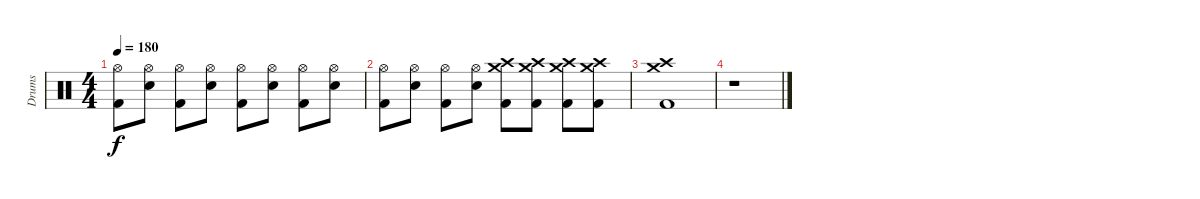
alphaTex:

\track ("Drums" "Drums") {instrument percussion}
\staff {score}
\articulation defaults
\ts (4 4)
\tempo 180
\clef neutral
\ks c
("Hi-Hat (open)" "Kick (hit) 2").8{dy f} ("Hi-Hat (open)" "Snare (hit) 2").8 ("Hi-Hat (open)" "Kick (hit) 2").8 ("Hi-Hat (open)" "Snare (hit) 2").8 ("Hi-Hat (open)" "Kick (hit) 2").8 ("Hi-Hat (open)" "Snare (hit) 2").8 ("Hi-Hat (open)" "Kick (hit) 2").8 ("Hi-Hat (open)" "Snare (hit) 2").8 |
("Hi-Hat (open)" "Kick (hit) 2").8 ("Hi-Hat (open)" "Snare (hit) 2").8 ("Hi-Hat (open)" "Kick (hit) 2").8 ("Hi-Hat (open)" "Snare (hit) 2").8 ("Crash high (hit)" "Crash medium (hit)" "Kick (hit) 2").8 ("Crash high (hit)" "Crash medium (hit)" "Kick (hit) 2").8 ("Crash high (hit)" "Crash medium (hit)" "Kick (hit) 2").8 ("Crash high (hit)" "Crash medium (hit)" "Kick (hit) 2").8 |
("Crash high (hit)" "Crash medium (hit)" "Kick (hit) 2").1 |
r.1
